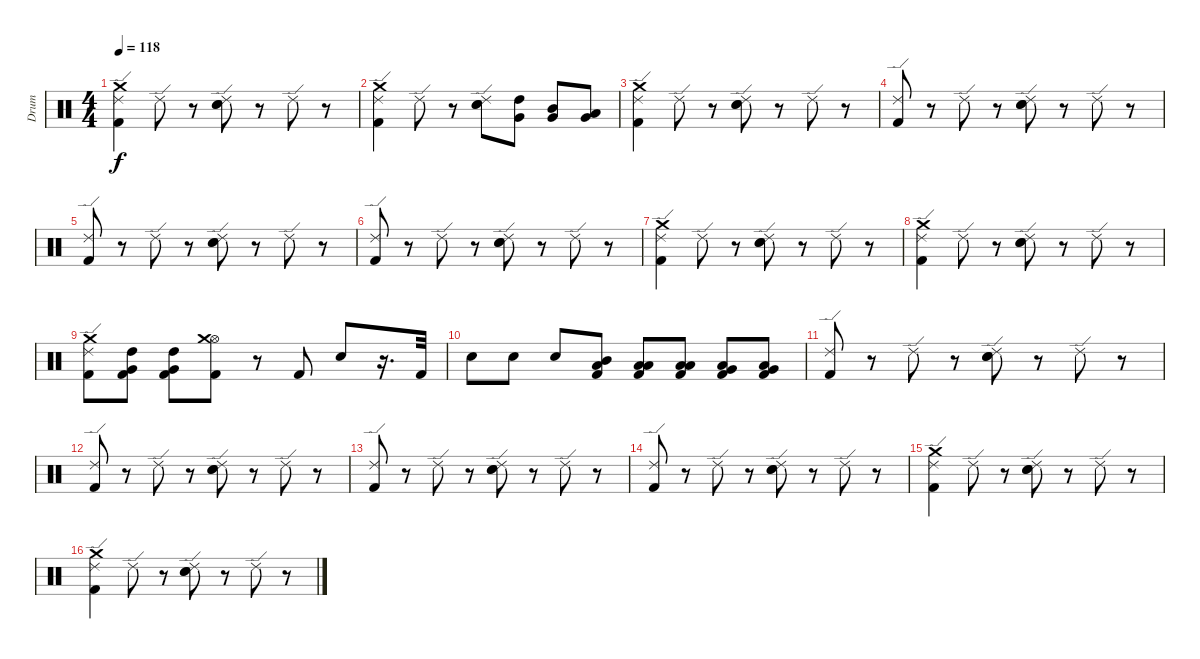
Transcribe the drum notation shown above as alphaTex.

\track (" Drum" " Drum") {instrument percussion}
\staff {score}
\articulation defaults
\ts (4 4)
\tempo 118
\clef neutral
\ks c
("Crash medium (hit)" "Kick (hit) 2" "Ride (edge) 2").4{dy f} "Ride (edge) 2".8 r.8 ("Electric Snare (hit)" "Snare (hit) 2" "Ride (edge) 2").8 r.8 "Ride (edge) 2".8 r.8 |
("Crash medium (hit)" "Kick (hit) 2" "Ride (edge) 2").4 "Ride (edge) 2".8 r.8 ("Electric Snare (hit)" "Snare (hit) 2" "Ride (edge) 2").8 ("Very Low Tom (hit)" "High Tom (hit)").8 ("Mid Tom (hit)" "Very Low Tom (hit)").8 ("Low Tom (hit)" "Very Low Tom (hit)").8 |
("Crash medium (hit)" "Kick (hit) 2" "Ride (edge) 2").4 "Ride (edge) 2".8 r.8 ("Electric Snare (hit)" "Snare (hit) 2" "Ride (edge) 2").8 r.8 "Ride (edge) 2".8 r.8 |
("Kick (hit) 2" "Ride (edge) 2").8 r.8 "Ride (edge) 2".8 r.8 ("Electric Snare (hit)" "Snare (hit) 2" "Ride (edge) 2").8 r.8 "Ride (edge) 2".8 r.8 |
("Kick (hit) 2" "Ride (edge) 2").8 r.8 "Ride (edge) 2".8 r.8 ("Electric Snare (hit)" "Snare (hit) 2" "Ride (edge) 2").8 r.8 "Ride (edge) 2".8 r.8 |
("Kick (hit) 2" "Ride (edge) 2").8 r.8 "Ride (edge) 2".8 r.8 ("Electric Snare (hit)" "Snare (hit) 2" "Ride (edge) 2").8 r.8 "Ride (edge) 2".8 r.8 |
("Crash medium (hit)" "Kick (hit) 2" "Ride (edge) 2").4 "Ride (edge) 2".8 r.8 ("Electric Snare (hit)" "Snare (hit) 2" "Ride (edge) 2").8 r.8 "Ride (edge) 2".8 r.8 |
("Crash medium (hit)" "Kick (hit) 2" "Ride (edge) 2").4 "Ride (edge) 2".8 r.8 ("Electric Snare (hit)" "Snare (hit) 2" "Ride (edge) 2").8 r.8 "Ride (edge) 2".8 r.8 |
("Crash medium (hit)" "Kick (hit) 2" "Ride (edge) 2").8 ("Very Low Tom (hit)" "High Tom (hit)" "Kick (hit) 2").8 ("Very Low Tom (hit)" "High Tom (hit)" "Kick (hit) 2").8 ("Hi-Hat (open)" "Crash medium (hit)" "Kick (hit) 2").8 r.8 "Kick (hit) 2".8 "Snare (hit) 2".8 r.16{d} "Kick (hit) 2".32 |
"Snare (hit) 2".8 "Snare (hit) 2".8 "Snare (hit) 2".8 ("Low Floor Tom (hit)" "Mid Tom (hit)" "Kick (hit) 2").8 ("Low Floor Tom (hit)" "Low Tom (hit)" "Kick (hit) 2").8 ("Low Floor Tom (hit)" "Low Tom (hit)" "Kick (hit) 2").8 ("Low Floor Tom (hit)" "Very Low Tom (hit)" "Kick (hit) 2").8 ("Low Floor Tom (hit)" "Very Low Tom (hit)" "Kick (hit) 2").8 |
("Kick (hit) 2" "Ride (edge) 2").8 r.8 "Ride (edge) 2".8 r.8 ("Electric Snare (hit)" "Snare (hit) 2" "Ride (edge) 2").8 r.8 "Ride (edge) 2".8 r.8 |
("Kick (hit) 2" "Ride (edge) 2").8 r.8 "Ride (edge) 2".8 r.8 ("Electric Snare (hit)" "Snare (hit) 2" "Ride (edge) 2").8 r.8 "Ride (edge) 2".8 r.8 |
("Kick (hit) 2" "Ride (edge) 2").8 r.8 "Ride (edge) 2".8 r.8 ("Electric Snare (hit)" "Snare (hit) 2" "Ride (edge) 2").8 r.8 "Ride (edge) 2".8 r.8 |
("Kick (hit) 2" "Ride (edge) 2").8 r.8 "Ride (edge) 2".8 r.8 ("Electric Snare (hit)" "Snare (hit) 2" "Ride (edge) 2").8 r.8 "Ride (edge) 2".8 r.8 |
("Crash medium (hit)" "Kick (hit) 2" "Ride (edge) 2").4 "Ride (edge) 2".8 r.8 ("Electric Snare (hit)" "Snare (hit) 2" "Ride (edge) 2").8 r.8 "Ride (edge) 2".8 r.8 |
("Crash medium (hit)" "Kick (hit) 2" "Ride (edge) 2").4 "Ride (edge) 2".8 r.8 ("Electric Snare (hit)" "Snare (hit) 2" "Ride (edge) 2").8 r.8 "Ride (edge) 2".8 r.8
